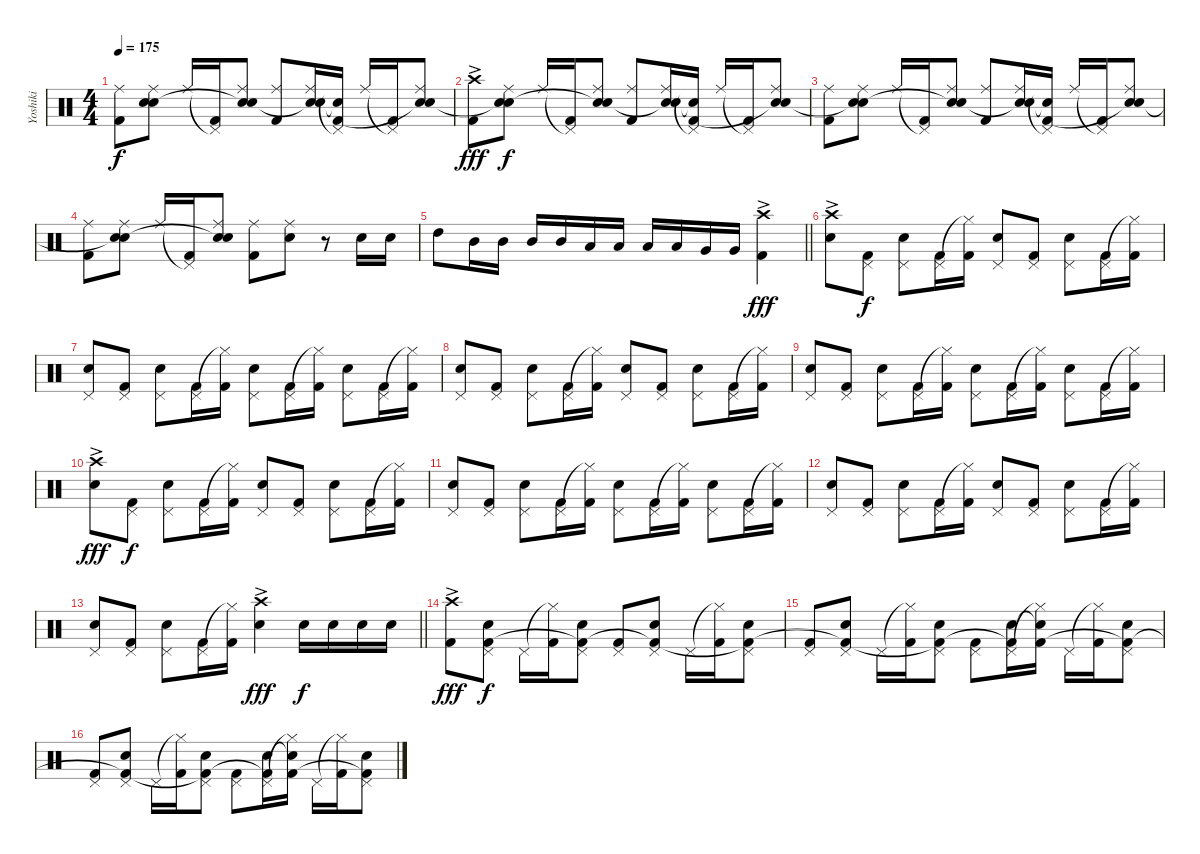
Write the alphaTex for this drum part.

\track ("Yoshiki" "Yoshiki") {instrument percussion}
\staff {score}
\articulation defaults
\ts (4 4)
\tempo 175
\clef neutral
\ks c
("Ride (middle)" "Kick (hit) 2").8{dy f} ("Ride (middle)" "Snare (hit) 2" "Snare (hit)"{t}).8 "Ride (middle)".16 ("Pedal Hi-Hat (hit)"{t} "Kick (hit) 2").16 ("Ride (middle)" "Snare (hit) 2" "Snare (hit)"{t}).8 ("Ride (middle)" "Kick (hit) 2").8 ("Ride (middle)" "Snare (hit) 2" "Snare (hit)"{t}).16 ("Pedal Hi-Hat (hit)"{t} "Snare (hit) 2"{t} "Kick (hit) 2").16 "Ride (middle)".16 ("Pedal Hi-Hat (hit)"{t} "Kick (hit) 2").16 ("Ride (middle)" "Snare (hit) 2" "Snare (hit)"{t}).8 |
("Crash high (hit)"{ac} "Kick (hit) 2"{ac}).8{dy fff} ("Ride (middle)" "Snare (hit) 2" "Snare (hit)"{t}).8{dy f} "Ride (middle)".16 ("Pedal Hi-Hat (hit)"{t} "Kick (hit) 2").16 ("Ride (middle)" "Snare (hit) 2" "Snare (hit)"{t}).8 ("Ride (middle)" "Kick (hit) 2").8 ("Ride (middle)" "Snare (hit) 2" "Snare (hit)"{t}).16 ("Pedal Hi-Hat (hit)"{t} "Snare (hit) 2"{t} "Kick (hit) 2").16 "Ride (middle)".16 ("Pedal Hi-Hat (hit)"{t} "Kick (hit) 2").16 ("Ride (middle)" "Snare (hit) 2" "Snare (hit)"{t}).8 |
("Ride (middle)" "Kick (hit) 2").8 ("Ride (middle)" "Snare (hit) 2" "Snare (hit)"{t}).8 "Ride (middle)".16 ("Pedal Hi-Hat (hit)"{t} "Kick (hit) 2").16 ("Ride (middle)" "Snare (hit) 2" "Snare (hit)"{t}).8 ("Ride (middle)" "Kick (hit) 2").8 ("Ride (middle)" "Snare (hit) 2" "Snare (hit)"{t}).16 ("Pedal Hi-Hat (hit)"{t} "Snare (hit) 2"{t} "Kick (hit) 2").16 "Ride (middle)".16 ("Pedal Hi-Hat (hit)"{t} "Kick (hit) 2").16 ("Ride (middle)" "Snare (hit) 2" "Snare (hit)"{t}).8 |
("Ride (middle)" "Kick (hit) 2").8 ("Ride (middle)" "Snare (hit) 2" "Snare (hit)"{t}).8 "Ride (middle)".16 ("Pedal Hi-Hat (hit)"{t} "Kick (hit) 2").16 ("Ride (middle)" "Snare (hit) 2" "Snare (hit)"{t}).8 ("Ride (middle)" "Kick (hit) 2").8 ("Ride (middle)" "Snare (hit) 2").8 r.8 "Snare (hit) 2".16 "Snare (hit) 2".16 |
\barLineRight lightlight "High Tom (hit)".8 "Mid Tom (hit)".16 "Mid Tom (hit)".16 "Mid Tom (hit)".16 "Mid Tom (hit)".16 "Low Tom (hit)".16 "Low Tom (hit)".16 "Low Tom (hit)".16 "Low Tom (hit)".16 "Very Low Tom (hit)".16 "Very Low Tom (hit)".16
("Crash high (hit)"{ac} "Kick (hit) 2"{ac}).4{dy fff} |
("Crash high (hit)"{ac} "Snare (hit) 2"{ac}).8 ("Pedal Hi-Hat (hit)" "Kick (hit) 2").8{dy f} ("Pedal Hi-Hat (hit)" "Snare (hit) 2").8 ("Pedal Hi-Hat (hit)" "Kick (hit) 2").16 ("Hi-Hat (closed)"{t} "Kick (hit) 2").16 ("Pedal Hi-Hat (hit)" "Snare (hit) 2").8 ("Pedal Hi-Hat (hit)" "Kick (hit) 2").8 ("Pedal Hi-Hat (hit)" "Snare (hit) 2").8 ("Pedal Hi-Hat (hit)" "Kick (hit) 2").16 ("Hi-Hat (closed)"{t} "Kick (hit) 2").16 |
("Pedal Hi-Hat (hit)" "Snare (hit) 2").8 ("Pedal Hi-Hat (hit)" "Kick (hit) 2").8 ("Pedal Hi-Hat (hit)" "Snare (hit) 2").8 ("Pedal Hi-Hat (hit)" "Kick (hit) 2").16 ("Hi-Hat (closed)"{t} "Kick (hit) 2").16 ("Pedal Hi-Hat (hit)" "Snare (hit) 2").8 ("Pedal Hi-Hat (hit)" "Kick (hit) 2").16 ("Hi-Hat (closed)"{t} "Kick (hit) 2").16 ("Pedal Hi-Hat (hit)" "Snare (hit) 2").8 ("Pedal Hi-Hat (hit)" "Kick (hit) 2").16 ("Hi-Hat (closed)"{t} "Kick (hit) 2").16 |
("Pedal Hi-Hat (hit)" "Snare (hit) 2").8 ("Pedal Hi-Hat (hit)" "Kick (hit) 2").8 ("Pedal Hi-Hat (hit)" "Snare (hit) 2").8 ("Pedal Hi-Hat (hit)" "Kick (hit) 2").16 ("Hi-Hat (closed)"{t} "Kick (hit) 2").16 ("Pedal Hi-Hat (hit)" "Snare (hit) 2").8 ("Pedal Hi-Hat (hit)" "Kick (hit) 2").8 ("Pedal Hi-Hat (hit)" "Snare (hit) 2").8 ("Pedal Hi-Hat (hit)" "Kick (hit) 2").16 ("Hi-Hat (closed)"{t} "Kick (hit) 2").16 |
("Pedal Hi-Hat (hit)" "Snare (hit) 2").8 ("Pedal Hi-Hat (hit)" "Kick (hit) 2").8 ("Pedal Hi-Hat (hit)" "Snare (hit) 2").8 ("Pedal Hi-Hat (hit)" "Kick (hit) 2").16 ("Hi-Hat (closed)"{t} "Kick (hit) 2").16 ("Pedal Hi-Hat (hit)" "Snare (hit) 2").8 ("Pedal Hi-Hat (hit)" "Kick (hit) 2").16 ("Hi-Hat (closed)"{t} "Kick (hit) 2").16 ("Pedal Hi-Hat (hit)" "Snare (hit) 2").8 ("Pedal Hi-Hat (hit)" "Kick (hit) 2").16 ("Hi-Hat (closed)"{t} "Kick (hit) 2").16 |
("Crash high (hit)"{ac} "Snare (hit) 2"{ac}).8{dy fff} ("Pedal Hi-Hat (hit)" "Kick (hit) 2").8{dy f} ("Pedal Hi-Hat (hit)" "Snare (hit) 2").8 ("Pedal Hi-Hat (hit)" "Kick (hit) 2").16 ("Hi-Hat (closed)"{t} "Kick (hit) 2").16 ("Pedal Hi-Hat (hit)" "Snare (hit) 2").8 ("Pedal Hi-Hat (hit)" "Kick (hit) 2").8 ("Pedal Hi-Hat (hit)" "Snare (hit) 2").8 ("Pedal Hi-Hat (hit)" "Kick (hit) 2").16 ("Hi-Hat (closed)"{t} "Kick (hit) 2").16 |
("Pedal Hi-Hat (hit)" "Snare (hit) 2").8 ("Pedal Hi-Hat (hit)" "Kick (hit) 2").8 ("Pedal Hi-Hat (hit)" "Snare (hit) 2").8 ("Pedal Hi-Hat (hit)" "Kick (hit) 2").16 ("Hi-Hat (closed)"{t} "Kick (hit) 2").16 ("Pedal Hi-Hat (hit)" "Snare (hit) 2").8 ("Pedal Hi-Hat (hit)" "Kick (hit) 2").16 ("Hi-Hat (closed)"{t} "Kick (hit) 2").16 ("Pedal Hi-Hat (hit)" "Snare (hit) 2").8 ("Pedal Hi-Hat (hit)" "Kick (hit) 2").16 ("Hi-Hat (closed)"{t} "Kick (hit) 2").16 |
("Pedal Hi-Hat (hit)" "Snare (hit) 2").8 ("Pedal Hi-Hat (hit)" "Kick (hit) 2").8 ("Pedal Hi-Hat (hit)" "Snare (hit) 2").8 ("Pedal Hi-Hat (hit)" "Kick (hit) 2").16 ("Hi-Hat (closed)"{t} "Kick (hit) 2").16 ("Pedal Hi-Hat (hit)" "Snare (hit) 2").8 ("Pedal Hi-Hat (hit)" "Kick (hit) 2").8 ("Pedal Hi-Hat (hit)" "Snare (hit) 2").8 ("Pedal Hi-Hat (hit)" "Kick (hit) 2").16 ("Hi-Hat (closed)"{t} "Kick (hit) 2").16 |
\barLineRight lightlight
("Pedal Hi-Hat (hit)" "Snare (hit) 2").8 ("Pedal Hi-Hat (hit)" "Kick (hit) 2").8 ("Pedal Hi-Hat (hit)" "Snare (hit) 2").8 ("Pedal Hi-Hat (hit)" "Kick (hit) 2").16 ("Hi-Hat (closed)"{t} "Kick (hit) 2").16 ("Crash high (hit)"{ac} "Snare (hit) 2").4{dy fff} "Snare (hit) 2".16{dy f} "Snare (hit) 2".16 "Snare (hit) 2".16 "Snare (hit) 2".16 |
("Crash high (hit)"{ac} "Kick (hit) 2").8{dy fff} ("Pedal Hi-Hat (hit)" "Snare (hit) 2" "Kick (hit) 2").8{dy f} "Pedal Hi-Hat (hit)".16 ("Hi-Hat (closed)"{t} "Kick (hit) 2").16 ("Pedal Hi-Hat (hit)" "Snare (hit) 2" "Kick (hit) 2"{t}).8 ("Pedal Hi-Hat (hit)" "Kick (hit) 2").8 ("Pedal Hi-Hat (hit)" "Snare (hit) 2" "Kick (hit) 2"{t}).8 "Pedal Hi-Hat (hit)".16 ("Hi-Hat (closed)"{t} "Kick (hit) 2").16 ("Pedal Hi-Hat (hit)" "Snare (hit) 2" "Kick (hit) 2"{t}).8 |
("Pedal Hi-Hat (hit)" "Kick (hit) 2").8 ("Pedal Hi-Hat (hit)" "Snare (hit) 2" "Kick (hit) 2"{t}).8 "Pedal Hi-Hat (hit)".16 ("Hi-Hat (closed)"{t} "Kick (hit) 2").16 ("Pedal Hi-Hat (hit)" "Snare (hit) 2" "Kick (hit) 2"{t}).8 ("Pedal Hi-Hat (hit)" "Kick (hit) 2").8 ("Pedal Hi-Hat (hit)" "Snare (hit) 2" "Kick (hit) 2"{t}).16 ("Hi-Hat (closed)"{t} "Snare (hit) 2"{t} "Kick (hit) 2").16 "Pedal Hi-Hat (hit)".16 ("Hi-Hat (closed)"{t} "Kick (hit) 2").16 ("Pedal Hi-Hat (hit)" "Snare (hit) 2" "Kick (hit) 2"{t}).8 |
("Pedal Hi-Hat (hit)" "Kick (hit) 2").8 ("Pedal Hi-Hat (hit)" "Snare (hit) 2" "Kick (hit) 2"{t}).8 "Pedal Hi-Hat (hit)".16 ("Hi-Hat (closed)"{t} "Kick (hit) 2").16 ("Pedal Hi-Hat (hit)" "Snare (hit) 2" "Kick (hit) 2"{t}).8 ("Pedal Hi-Hat (hit)" "Kick (hit) 2").8 ("Pedal Hi-Hat (hit)" "Snare (hit) 2" "Kick (hit) 2"{t}).16 ("Hi-Hat (closed)"{t} "Snare (hit) 2"{t} "Kick (hit) 2").16 "Pedal Hi-Hat (hit)".16 ("Hi-Hat (closed)"{t} "Kick (hit) 2").16 ("Pedal Hi-Hat (hit)" "Snare (hit) 2" "Kick (hit) 2"{t}).8
